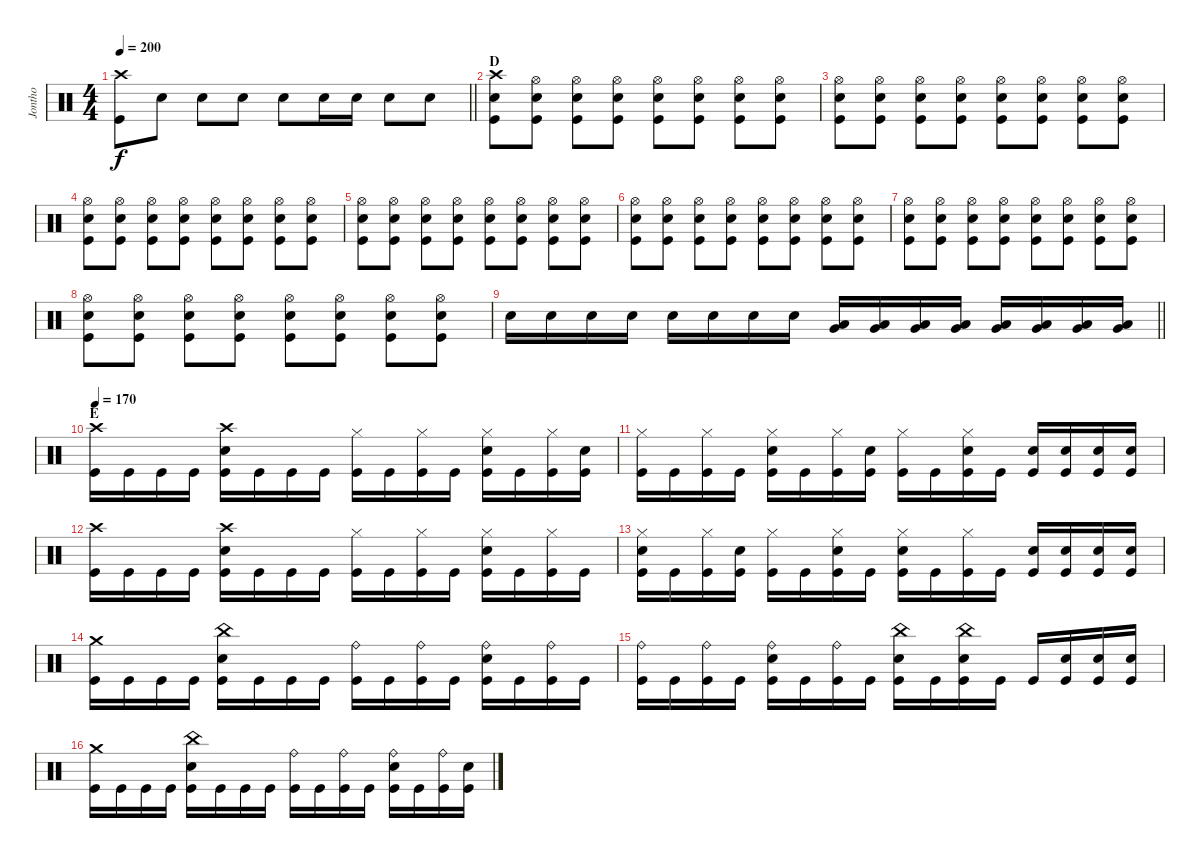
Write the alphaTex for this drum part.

\track ("Jontho" "Jontho") {instrument percussion}
\staff {score}
\articulation defaults
\ts (4 4)
\tempo 200
\clef neutral
\barLineRight lightlight
\ks c
("Crash high (hit)" "Kick (hit)").8{dy f} "Snare (hit) 2".8 "Snare (hit) 2".8 "Snare (hit) 2".8 "Snare (hit) 2".8 "Snare (hit) 2".16 "Snare (hit) 2".16 "Snare (hit) 2".8 "Snare (hit) 2".8 |
\section ("" "D")
("Crash high (hit)" "Snare (hit) 2" "Kick (hit)").8 ("Hi-Hat (open)" "Snare (hit) 2" "Kick (hit)").8 ("Hi-Hat (open)" "Snare (hit) 2" "Kick (hit)").8 ("Hi-Hat (open)" "Snare (hit) 2" "Kick (hit)").8 ("Hi-Hat (open)" "Snare (hit) 2" "Kick (hit)").8 ("Hi-Hat (open)" "Snare (hit) 2" "Kick (hit)").8 ("Hi-Hat (open)" "Snare (hit) 2" "Kick (hit)").8 ("Hi-Hat (open)" "Snare (hit) 2" "Kick (hit)").8 |
("Hi-Hat (open)" "Snare (hit) 2" "Kick (hit)").8 ("Hi-Hat (open)" "Snare (hit) 2" "Kick (hit)").8 ("Hi-Hat (open)" "Snare (hit) 2" "Kick (hit)").8 ("Hi-Hat (open)" "Snare (hit) 2" "Kick (hit)").8 ("Hi-Hat (open)" "Snare (hit) 2" "Kick (hit)").8 ("Hi-Hat (open)" "Snare (hit) 2" "Kick (hit)").8 ("Hi-Hat (open)" "Snare (hit) 2" "Kick (hit)").8 ("Hi-Hat (open)" "Snare (hit) 2" "Kick (hit)").8 |
("Hi-Hat (open)" "Snare (hit) 2" "Kick (hit)").8 ("Hi-Hat (open)" "Snare (hit) 2" "Kick (hit)").8 ("Hi-Hat (open)" "Snare (hit) 2" "Kick (hit)").8 ("Hi-Hat (open)" "Snare (hit) 2" "Kick (hit)").8 ("Hi-Hat (open)" "Snare (hit) 2" "Kick (hit)").8 ("Hi-Hat (open)" "Snare (hit) 2" "Kick (hit)").8 ("Hi-Hat (open)" "Snare (hit) 2" "Kick (hit)").8 ("Hi-Hat (open)" "Snare (hit) 2" "Kick (hit)").8 |
("Hi-Hat (open)" "Snare (hit) 2" "Kick (hit)").8 ("Hi-Hat (open)" "Snare (hit) 2" "Kick (hit)").8 ("Hi-Hat (open)" "Snare (hit) 2" "Kick (hit)").8 ("Hi-Hat (open)" "Snare (hit) 2" "Kick (hit)").8 ("Hi-Hat (open)" "Snare (hit) 2" "Kick (hit)").8 ("Hi-Hat (open)" "Snare (hit) 2" "Kick (hit)").8 ("Hi-Hat (open)" "Snare (hit) 2" "Kick (hit)").8 ("Hi-Hat (open)" "Snare (hit) 2" "Kick (hit)").8 |
("Hi-Hat (open)" "Snare (hit) 2" "Kick (hit)").8 ("Hi-Hat (open)" "Snare (hit) 2" "Kick (hit)").8 ("Hi-Hat (open)" "Snare (hit) 2" "Kick (hit)").8 ("Hi-Hat (open)" "Snare (hit) 2" "Kick (hit)").8 ("Hi-Hat (open)" "Snare (hit) 2" "Kick (hit)").8 ("Hi-Hat (open)" "Snare (hit) 2" "Kick (hit)").8 ("Hi-Hat (open)" "Snare (hit) 2" "Kick (hit)").8 ("Hi-Hat (open)" "Snare (hit) 2" "Kick (hit)").8 |
("Hi-Hat (open)" "Snare (hit) 2" "Kick (hit)").8 ("Hi-Hat (open)" "Snare (hit) 2" "Kick (hit)").8 ("Hi-Hat (open)" "Snare (hit) 2" "Kick (hit)").8 ("Hi-Hat (open)" "Snare (hit) 2" "Kick (hit)").8 ("Hi-Hat (open)" "Snare (hit) 2" "Kick (hit)").8 ("Hi-Hat (open)" "Snare (hit) 2" "Kick (hit)").8 ("Hi-Hat (open)" "Snare (hit) 2" "Kick (hit)").8 ("Hi-Hat (open)" "Snare (hit) 2" "Kick (hit)").8 |
("Hi-Hat (open)" "Snare (hit) 2" "Kick (hit)").8 ("Hi-Hat (open)" "Snare (hit) 2" "Kick (hit)").8 ("Hi-Hat (open)" "Snare (hit) 2" "Kick (hit)").8 ("Hi-Hat (open)" "Snare (hit) 2" "Kick (hit)").8 ("Hi-Hat (open)" "Snare (hit) 2" "Kick (hit)").8 ("Hi-Hat (open)" "Snare (hit) 2" "Kick (hit)").8 ("Hi-Hat (open)" "Snare (hit) 2" "Kick (hit)").8 ("Hi-Hat (open)" "Snare (hit) 2" "Kick (hit)").8 |
\barLineRight lightlight "Snare (hit) 2".16 "Snare (hit) 2".16 "Snare (hit) 2".16 "Snare (hit) 2".16 "Snare (hit) 2".16 "Snare (hit) 2".16 "Snare (hit) 2".16 "Snare (hit) 2".16
("Low Tom (hit)" "Very Low Tom (hit)").16 ("Low Tom (hit)" "Very Low Tom (hit)").16 ("Low Tom (hit)" "Very Low Tom (hit)").16 ("Low Tom (hit)" "Very Low Tom (hit)").16 ("Very Low Tom (hit)" "Low Floor Tom (hit)").16 ("Very Low Tom (hit)" "Low Floor Tom (hit)").16 ("Very Low Tom (hit)" "Low Floor Tom (hit)").16 ("Very Low Tom (hit)" "Low Floor Tom (hit)").16 |
\section ("" "E")
\tempo 170
("Crash high (hit)" "Kick (hit)").16 "Kick (hit)".16 "Kick (hit)".16 "Kick (hit)".16 ("Crash high (hit)" "Snare (hit) 2" "Kick (hit)").16 "Kick (hit)".16 "Kick (hit)".16 "Kick (hit)".16 ("Hi-Hat (closed)" "Kick (hit)").16 "Kick (hit)".16 ("Hi-Hat (closed)" "Kick (hit)").16 "Kick (hit)".16 ("Hi-Hat (closed)" "Snare (hit) 2" "Kick (hit)").16 "Kick (hit)".16 ("Hi-Hat (closed)" "Kick (hit)").16 ("Snare (hit) 2" "Kick (hit)").16 |
("Hi-Hat (closed)" "Kick (hit)").16 "Kick (hit)".16 ("Hi-Hat (closed)" "Kick (hit)").16 "Kick (hit)".16 ("Hi-Hat (closed)" "Snare (hit) 2" "Kick (hit)").16 "Kick (hit)".16 ("Hi-Hat (closed)" "Kick (hit)").16 ("Snare (hit) 2" "Kick (hit)").16 ("Hi-Hat (closed)" "Kick (hit)").16 "Kick (hit)".16 ("Hi-Hat (closed)" "Snare (hit) 2" "Kick (hit)").16 "Kick (hit)".16 ("Snare (hit) 2" "Kick (hit)").16 ("Snare (hit) 2" "Kick (hit)").16 ("Snare (hit) 2" "Kick (hit)").16 ("Snare (hit) 2" "Kick (hit)").16 |
("Crash high (hit)" "Kick (hit)").16 "Kick (hit)".16 "Kick (hit)".16 "Kick (hit)".16 ("Crash high (hit)" "Snare (hit) 2" "Kick (hit)").16 "Kick (hit)".16 "Kick (hit)".16 "Kick (hit)".16 ("Hi-Hat (closed)" "Kick (hit)").16 "Kick (hit)".16 ("Hi-Hat (closed)" "Kick (hit)").16 "Kick (hit)".16 ("Hi-Hat (closed)" "Snare (hit) 2" "Kick (hit)").16 "Kick (hit)".16 ("Hi-Hat (closed)" "Kick (hit)").16 "Kick (hit)".16 |
("Hi-Hat (closed)" "Snare (hit) 2" "Kick (hit)").16 "Kick (hit)".16 ("Hi-Hat (closed)" "Kick (hit)").16 ("Snare (hit) 2" "Kick (hit)").16 ("Hi-Hat (closed)" "Kick (hit)").16 "Kick (hit)".16 ("Hi-Hat (closed)" "Snare (hit) 2" "Kick (hit)").16 "Kick (hit)".16 ("Hi-Hat (closed)" "Snare (hit) 2" "Kick (hit)").16 "Kick (hit)".16 ("Hi-Hat (closed)" "Kick (hit)").16 "Kick (hit)".16 ("Snare (hit) 2" "Kick (hit)").16 ("Snare (hit) 2" "Kick (hit)").16 ("Snare (hit) 2" "Kick (hit)").16 ("Snare (hit) 2" "Kick (hit)").16 |
("Crash medium (hit)" "Kick (hit)").16 "Kick (hit)".16 "Kick (hit)".16 "Kick (hit)".16 ("China (hit)" "Snare (hit) 2" "Kick (hit)").16 "Kick (hit)".16 "Kick (hit)".16 "Kick (hit)".16 ("Ride (bell)" "Kick (hit)").16 "Kick (hit)".16 ("Ride (bell)" "Kick (hit)").16 "Kick (hit)".16 ("Ride (bell)" "Snare (hit) 2" "Kick (hit)").16 "Kick (hit)".16 ("Ride (bell)" "Kick (hit)").16 "Kick (hit)".16 |
("Ride (bell)" "Kick (hit)").16 "Kick (hit)".16 ("Ride (bell)" "Kick (hit)").16 "Kick (hit)".16 ("Ride (bell)" "Snare (hit) 2" "Kick (hit)").16 "Kick (hit)".16 ("Ride (bell)" "Kick (hit)").16 "Kick (hit)".16 ("China (hit)" "Snare (hit) 2" "Kick (hit)").16 "Kick (hit)".16 ("China (hit)" "Snare (hit) 2" "Kick (hit)").16 "Kick (hit)".16 "Kick (hit)".16 ("Snare (hit) 2" "Kick (hit)").16 ("Snare (hit) 2" "Kick (hit)").16 ("Snare (hit) 2" "Kick (hit)").16 |
("Crash medium (hit)" "Kick (hit)").16 "Kick (hit)".16 "Kick (hit)".16 "Kick (hit)".16 ("China (hit)" "Snare (hit) 2" "Kick (hit)").16 "Kick (hit)".16 "Kick (hit)".16 "Kick (hit)".16 ("Ride (bell)" "Kick (hit)").16 "Kick (hit)".16 ("Ride (bell)" "Kick (hit)").16 "Kick (hit)".16 ("Ride (bell)" "Snare (hit) 2" "Kick (hit)").16 "Kick (hit)".16 ("Ride (bell)" "Kick (hit)").16 ("Snare (hit) 2" "Kick (hit)").16
